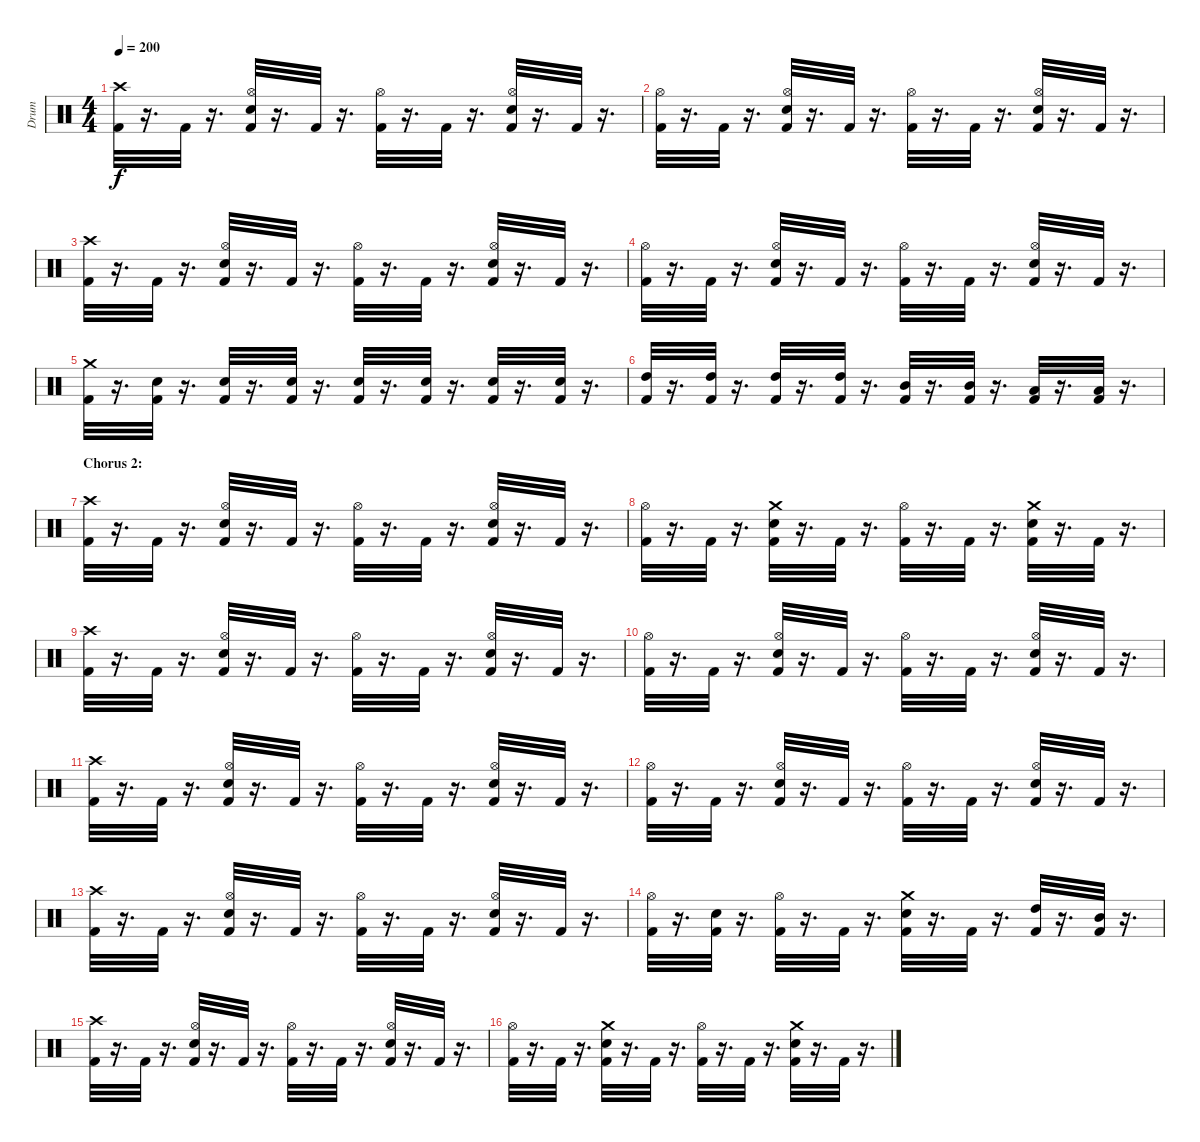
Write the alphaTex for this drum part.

\track ("Drum" "Drum") {instrument percussion}
\staff {score}
\articulation defaults
\ts (4 4)
\tempo 200
\clef neutral
\ks c
("Crash high (hit)" "Kick (hit) 2").32{dy f} r.16{d} "Kick (hit) 2".32 r.16{d} ("Hi-Hat (open)" "Snare (hit) 2" "Kick (hit) 2").32 r.16{d} "Kick (hit) 2".32 r.16{d} ("Hi-Hat (open)" "Kick (hit) 2").32 r.16{d} "Kick (hit) 2".32 r.16{d} ("Hi-Hat (open)" "Snare (hit) 2" "Kick (hit) 2").32 r.16{d} "Kick (hit) 2".32 r.16{d} |
("Hi-Hat (open)" "Kick (hit) 2").32 r.16{d} "Kick (hit) 2".32 r.16{d} ("Hi-Hat (open)" "Snare (hit) 2" "Kick (hit) 2").32 r.16{d} "Kick (hit) 2".32 r.16{d} ("Hi-Hat (open)" "Kick (hit) 2").32 r.16{d} "Kick (hit) 2".32 r.16{d} ("Hi-Hat (open)" "Snare (hit) 2" "Kick (hit) 2").32 r.16{d} "Kick (hit) 2".32 r.16{d} |
("Crash high (hit)" "Kick (hit) 2").32 r.16{d} "Kick (hit) 2".32 r.16{d} ("Hi-Hat (open)" "Snare (hit) 2" "Kick (hit) 2").32 r.16{d} "Kick (hit) 2".32 r.16{d} ("Hi-Hat (open)" "Kick (hit) 2").32 r.16{d} "Kick (hit) 2".32 r.16{d} ("Hi-Hat (open)" "Snare (hit) 2" "Kick (hit) 2").32 r.16{d} "Kick (hit) 2".32 r.16{d} |
("Hi-Hat (open)" "Kick (hit) 2").32 r.16{d} "Kick (hit) 2".32 r.16{d} ("Hi-Hat (open)" "Snare (hit) 2" "Kick (hit) 2").32 r.16{d} "Kick (hit) 2".32 r.16{d} ("Hi-Hat (open)" "Kick (hit) 2").32 r.16{d} "Kick (hit) 2".32 r.16{d} ("Hi-Hat (open)" "Snare (hit) 2" "Kick (hit) 2").32 r.16{d} "Kick (hit) 2".32 r.16{d} |
("Crash medium (hit)" "Kick (hit) 2").32 r.16{d} ("Snare (hit) 2" "Kick (hit) 2").32 r.16{d} ("Kick (hit) 2" "Snare (hit) 2").32 r.16{d} ("Snare (hit) 2" "Kick (hit) 2").32 r.16{d} ("Snare (hit) 2" "Kick (hit) 2").32 r.16{d} ("Snare (hit) 2" "Kick (hit) 2").32 r.16{d} ("Kick (hit) 2" "Snare (hit) 2").32 r.16{d} ("Snare (hit) 2" "Kick (hit) 2").32 r.16{d} |
("High Tom (hit)" "Kick (hit) 2").32 r.16{d} ("High Tom (hit)" "Kick (hit) 2").32 r.16{d} ("High Tom (hit)" "Kick (hit) 2").32 r.16{d} ("High Tom (hit)" "Kick (hit) 2").32 r.16{d} ("Mid Tom (hit)" "Kick (hit) 2").32 r.16{d} ("Mid Tom (hit)" "Kick (hit) 2").32 r.16{d} ("Low Tom (hit)" "Kick (hit) 2").32 r.16{d} ("Low Tom (hit)" "Kick (hit) 2").32 r.16{d} |
\section ("" "Chorus 2:")
("Crash high (hit)" "Kick (hit) 2").32 r.16{d} "Kick (hit) 2".32 r.16{d} ("Kick (hit) 2" "Hi-Hat (open)" "Snare (hit) 2").32 r.16{d} "Kick (hit) 2".32 r.16{d} ("Kick (hit) 2" "Hi-Hat (open)").32 r.16{d} "Kick (hit) 2".32 r.16{d} ("Kick (hit) 2" "Hi-Hat (open)" "Snare (hit) 2").32 r.16{d} "Kick (hit) 2".32 r.16{d} |
("Kick (hit) 2" "Hi-Hat (open)").32 r.16{d} "Kick (hit) 2".32 r.16{d} ("Crash medium (hit)" "Kick (hit) 2" "Snare (hit) 2").32 r.16{d} "Kick (hit) 2".32 r.16{d} ("Kick (hit) 2" "Hi-Hat (open)").32 r.16{d} "Kick (hit) 2".32 r.16{d} ("Crash medium (hit)" "Kick (hit) 2" "Snare (hit) 2").32 r.16{d} "Kick (hit) 2".32 r.16{d} |
("Crash high (hit)" "Kick (hit) 2").32 r.16{d} "Kick (hit) 2".32 r.16{d} ("Kick (hit) 2" "Hi-Hat (open)" "Snare (hit) 2").32 r.16{d} "Kick (hit) 2".32 r.16{d} ("Kick (hit) 2" "Hi-Hat (open)").32 r.16{d} "Kick (hit) 2".32 r.16{d} ("Kick (hit) 2" "Hi-Hat (open)" "Snare (hit) 2").32 r.16{d} "Kick (hit) 2".32 r.16{d} |
("Kick (hit) 2" "Hi-Hat (open)").32 r.16{d} "Kick (hit) 2".32 r.16{d} ("Kick (hit) 2" "Hi-Hat (open)" "Snare (hit) 2").32 r.16{d} "Kick (hit) 2".32 r.16{d} ("Kick (hit) 2" "Hi-Hat (open)").32 r.16{d} "Kick (hit) 2".32 r.16{d} ("Kick (hit) 2" "Hi-Hat (open)" "Snare (hit) 2").32 r.16{d} "Kick (hit) 2".32 r.16{d} |
("Crash high (hit)" "Kick (hit) 2").32 r.16{d} "Kick (hit) 2".32 r.16{d} ("Kick (hit) 2" "Hi-Hat (open)" "Snare (hit) 2").32 r.16{d} "Kick (hit) 2".32 r.16{d} ("Kick (hit) 2" "Hi-Hat (open)").32 r.16{d} "Kick (hit) 2".32 r.16{d} ("Kick (hit) 2" "Hi-Hat (open)" "Snare (hit) 2").32 r.16{d} "Kick (hit) 2".32 r.16{d} |
("Kick (hit) 2" "Hi-Hat (open)").32 r.16{d} "Kick (hit) 2".32 r.16{d} ("Snare (hit) 2" "Kick (hit) 2" "Hi-Hat (open)").32 r.16{d} "Kick (hit) 2".32 r.16{d} ("Hi-Hat (open)" "Kick (hit) 2").32 r.16{d} "Kick (hit) 2".32 r.16{d} ("Snare (hit) 2" "Hi-Hat (open)" "Kick (hit) 2").32 r.16{d} "Kick (hit) 2".32 r.16{d} |
("Crash high (hit)" "Kick (hit) 2").32 r.16{d} "Kick (hit) 2".32 r.16{d} ("Kick (hit) 2" "Hi-Hat (open)" "Snare (hit) 2").32 r.16{d} "Kick (hit) 2".32 r.16{d} ("Kick (hit) 2" "Hi-Hat (open)").32 r.16{d} "Kick (hit) 2".32 r.16{d} ("Kick (hit) 2" "Hi-Hat (open)" "Snare (hit) 2").32 r.16{d} "Kick (hit) 2".32 r.16{d} |
("Kick (hit) 2" "Hi-Hat (open)").32 r.16{d} ("Snare (hit) 2" "Kick (hit) 2").32 r.16{d} ("Kick (hit) 2" "Hi-Hat (open)").32 r.16{d} "Kick (hit) 2".32 r.16{d} ("Crash medium (hit)" "Snare (hit) 2" "Kick (hit) 2").32 r.16{d} "Kick (hit) 2".32 r.16{d} ("High Tom (hit)" "Kick (hit) 2").32 r.16{d} ("Mid Tom (hit)" "Kick (hit) 2").32 r.16{d} |
("Crash high (hit)" "Kick (hit) 2").32 r.16{d} "Kick (hit) 2".32 r.16{d} ("Kick (hit) 2" "Hi-Hat (open)" "Snare (hit) 2").32 r.16{d} "Kick (hit) 2".32 r.16{d} ("Kick (hit) 2" "Hi-Hat (open)").32 r.16{d} "Kick (hit) 2".32 r.16{d} ("Kick (hit) 2" "Hi-Hat (open)" "Snare (hit) 2").32 r.16{d} "Kick (hit) 2".32 r.16{d} |
("Kick (hit) 2" "Hi-Hat (open)").32 r.16{d} "Kick (hit) 2".32 r.16{d} ("Crash medium (hit)" "Kick (hit) 2" "Snare (hit) 2").32 r.16{d} "Kick (hit) 2".32 r.16{d} ("Kick (hit) 2" "Hi-Hat (open)").32 r.16{d} "Kick (hit) 2".32 r.16{d} ("Crash medium (hit)" "Kick (hit) 2" "Snare (hit) 2").32 r.16{d} "Kick (hit) 2".32 r.16{d}
